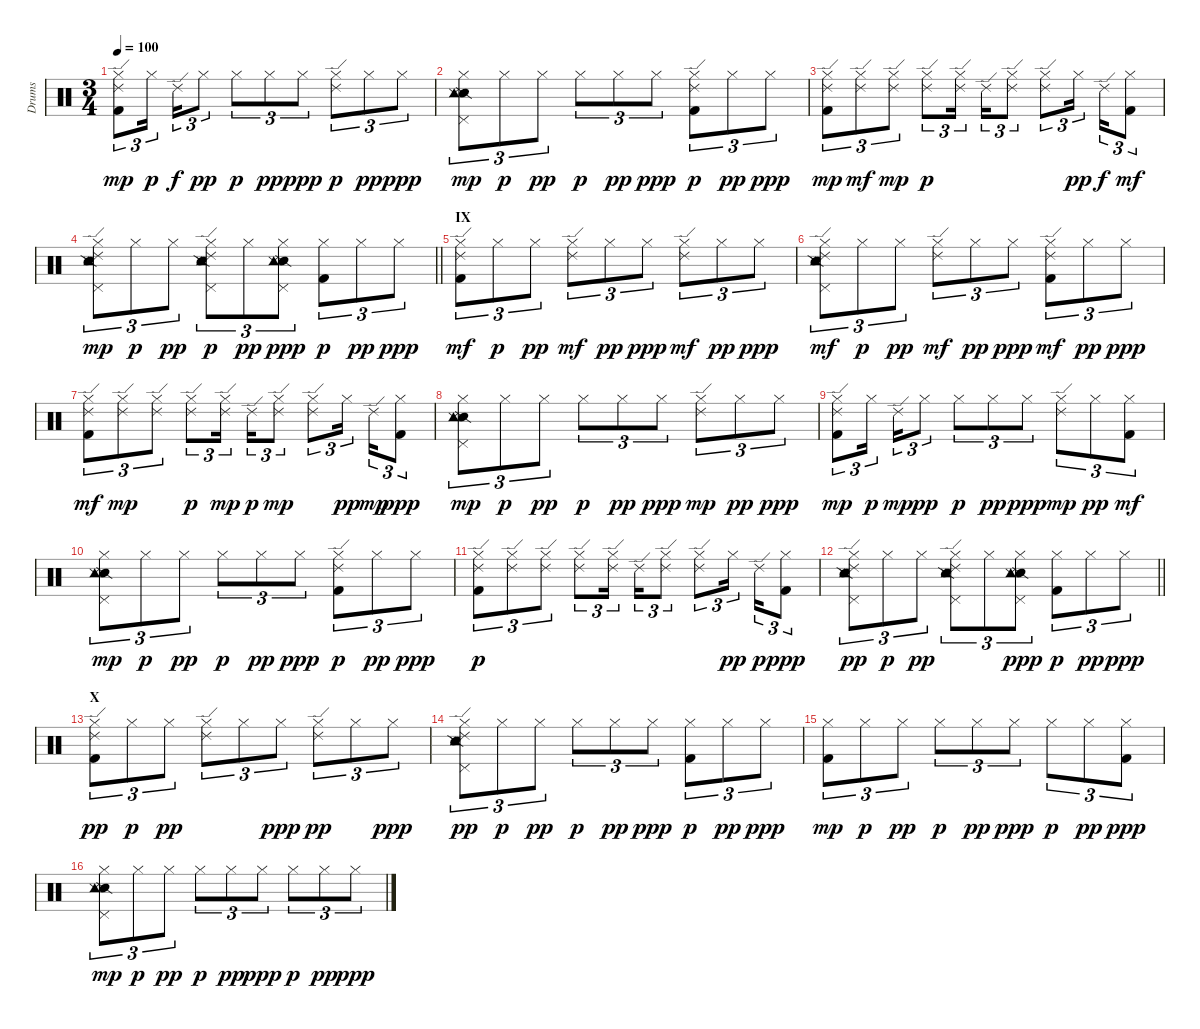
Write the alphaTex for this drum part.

\track ("Drums" "Drums") {instrument percussion}
\staff {score}
\articulation defaults
\ts (3 4)
\tempo 100
\clef neutral
\ks c
("Hi-Hat (closed)" "Ride (edge) 2" "Kick (hit) 2").8{tu (3 2) dy mp} "Hi-Hat (closed)".16{tu (3 2) dy p beam splitsecondary} "Ride (edge) 2".16{tu (3 2) dy f} "Hi-Hat (closed)".8{tu (3 2) dy pp} "Hi-Hat (closed)".8{tu (3 2) dy p} "Hi-Hat (closed)".8{tu (3 2) dy pp} "Hi-Hat (closed)".8{tu (3 2) dy ppp} ("Hi-Hat (closed)" "Ride (edge) 2").8{tu (3 2) dy p} "Hi-Hat (closed)".8{tu (3 2) dy pp} "Hi-Hat (closed)".8{tu (3 2) dy ppp} |
("Hi-Hat (closed)" "Pedal Hi-Hat (hit)" "Snare (side stick) 2" "Snare (side stick) 3" "Tambourine (hit)").8{tu (3 2) dy mp} "Hi-Hat (closed)".8{tu (3 2) dy p} "Hi-Hat (closed)".8{tu (3 2) dy pp} "Hi-Hat (closed)".8{tu (3 2) dy p} "Hi-Hat (closed)".8{tu (3 2) dy pp} "Hi-Hat (closed)".8{tu (3 2) dy ppp} ("Hi-Hat (closed)" "Ride (edge) 2" "Kick (hit) 2").8{tu (3 2) dy p} "Hi-Hat (closed)".8{tu (3 2) dy pp} "Hi-Hat (closed)".8{tu (3 2) dy ppp} |
("Hi-Hat (closed)" "Ride (edge) 2" "Kick (hit) 2").8{tu (3 2) dy mp} ("Hi-Hat (closed)" "Ride (edge) 2").8{tu (3 2) dy mf} ("Hi-Hat (closed)" "Ride (edge) 2").8{tu (3 2) dy mp} ("Hi-Hat (closed)" "Ride (edge) 2").8{tu (3 2) dy p} ("Hi-Hat (closed)" "Ride (edge) 2").16{tu (3 2) beam splitsecondary} "Ride (edge) 2".16{tu (3 2)} ("Hi-Hat (closed)" "Ride (edge) 2").8{tu (3 2)} ("Hi-Hat (closed)" "Ride (edge) 2").8{tu (3 2)} "Hi-Hat (closed)".16{tu (3 2) dy pp beam splitsecondary} "Ride (edge) 2".16{tu (3 2) dy f} ("Hi-Hat (closed)" "Kick (hit) 2").8{tu (3 2) dy mf} |
\barLineRight lightlight
("Hi-Hat (closed)" "Ride (edge) 2" "Pedal Hi-Hat (hit)" "Snare (side stick) 2" "Snare (side stick) 3" "Tambourine (hit)").8{tu (3 2) dy mp} "Hi-Hat (closed)".8{tu (3 2) dy p} "Hi-Hat (closed)".8{tu (3 2) dy pp} ("Hi-Hat (closed)" "Ride (edge) 2" "Pedal Hi-Hat (hit)" "Snare (side stick) 2" "Snare (side stick) 3" "Tambourine (hit)").8{tu (3 2) dy p} "Hi-Hat (closed)".8{tu (3 2) dy pp} ("Hi-Hat (closed)" "Pedal Hi-Hat (hit)" "Snare (side stick) 2" "Snare (side stick) 3" "Tambourine (hit)").8{tu (3 2) dy ppp} ("Hi-Hat (closed)" "Kick (hit) 2").8{tu (3 2) dy p} "Hi-Hat (closed)".8{tu (3 2) dy pp} "Hi-Hat (closed)".8{tu (3 2) dy ppp} |
\section ("" "IX")
("Hi-Hat (closed)" "Ride (edge) 2" "Kick (hit) 2").8{tu (3 2) dy mf} "Hi-Hat (closed)".8{tu (3 2) dy p} "Hi-Hat (closed)".8{tu (3 2) dy pp} ("Hi-Hat (closed)" "Ride (edge) 2").8{tu (3 2) dy mf} "Hi-Hat (closed)".8{tu (3 2) dy pp} "Hi-Hat (closed)".8{tu (3 2) dy ppp} ("Hi-Hat (closed)" "Ride (edge) 2").8{tu (3 2) dy mf} "Hi-Hat (closed)".8{tu (3 2) dy pp} "Hi-Hat (closed)".8{tu (3 2) dy ppp} |
("Hi-Hat (closed)" "Ride (edge) 2" "Pedal Hi-Hat (hit)" "Snare (side stick) 2" "Snare (side stick) 3" "Tambourine (hit)").8{tu (3 2) dy mf} "Hi-Hat (closed)".8{tu (3 2) dy p} "Hi-Hat (closed)".8{tu (3 2) dy pp} ("Hi-Hat (closed)" "Ride (edge) 2").8{tu (3 2) dy mf} "Hi-Hat (closed)".8{tu (3 2) dy pp} "Hi-Hat (closed)".8{tu (3 2) dy ppp} ("Hi-Hat (closed)" "Ride (edge) 2" "Kick (hit) 2").8{tu (3 2) dy mf} "Hi-Hat (closed)".8{tu (3 2) dy pp} "Hi-Hat (closed)".8{tu (3 2) dy ppp} |
("Hi-Hat (closed)" "Ride (edge) 2" "Kick (hit) 2").8{tu (3 2) dy mf} ("Hi-Hat (closed)" "Ride (edge) 2").8{tu (3 2) dy mp} ("Hi-Hat (closed)" "Ride (edge) 2").8{tu (3 2)} ("Hi-Hat (closed)" "Ride (edge) 2").8{tu (3 2) dy p} ("Hi-Hat (closed)" "Ride (edge) 2").16{tu (3 2) dy mp beam splitsecondary} "Ride (edge) 2".16{tu (3 2) dy p} ("Hi-Hat (closed)" "Ride (edge) 2").8{tu (3 2) dy mp} ("Hi-Hat (closed)" "Ride (edge) 2").8{tu (3 2)} "Hi-Hat (closed)".16{tu (3 2) dy pp beam splitsecondary} "Ride (edge) 2".16{tu (3 2) dy mp} ("Hi-Hat (closed)" "Kick (hit) 2").8{tu (3 2) dy ppp} |
("Hi-Hat (closed)" "Pedal Hi-Hat (hit)" "Snare (side stick) 2" "Snare (side stick) 3" "Tambourine (hit)").8{tu (3 2) dy mp} "Hi-Hat (closed)".8{tu (3 2) dy p} "Hi-Hat (closed)".8{tu (3 2) dy pp} "Hi-Hat (closed)".8{tu (3 2) dy p} "Hi-Hat (closed)".8{tu (3 2) dy pp} "Hi-Hat (closed)".8{tu (3 2) dy ppp} ("Hi-Hat (closed)" "Ride (edge) 2").8{tu (3 2) dy mp} "Hi-Hat (closed)".8{tu (3 2) dy pp} "Hi-Hat (closed)".8{tu (3 2) dy ppp} |
("Hi-Hat (closed)" "Ride (edge) 2" "Kick (hit) 2").8{tu (3 2) dy mp} "Hi-Hat (closed)".16{tu (3 2) dy p beam splitsecondary} "Ride (edge) 2".16{tu (3 2) dy mp} "Hi-Hat (closed)".8{tu (3 2) dy pp} "Hi-Hat (closed)".8{tu (3 2) dy p} "Hi-Hat (closed)".8{tu (3 2) dy pp} "Hi-Hat (closed)".8{tu (3 2) dy ppp} ("Hi-Hat (closed)" "Ride (edge) 2").8{tu (3 2) dy mp} "Hi-Hat (closed)".8{tu (3 2) dy pp} ("Hi-Hat (closed)" "Kick (hit) 2").8{tu (3 2) dy mf} |
("Hi-Hat (closed)" "Pedal Hi-Hat (hit)" "Snare (side stick) 2" "Snare (side stick) 3" "Tambourine (hit)").8{tu (3 2) dy mp} "Hi-Hat (closed)".8{tu (3 2) dy p} "Hi-Hat (closed)".8{tu (3 2) dy pp} "Hi-Hat (closed)".8{tu (3 2) dy p} "Hi-Hat (closed)".8{tu (3 2) dy pp} "Hi-Hat (closed)".8{tu (3 2) dy ppp} ("Hi-Hat (closed)" "Ride (edge) 2" "Kick (hit) 2").8{tu (3 2) dy p} "Hi-Hat (closed)".8{tu (3 2) dy pp} "Hi-Hat (closed)".8{tu (3 2) dy ppp} |
("Hi-Hat (closed)" "Ride (edge) 2" "Kick (hit) 2").8{tu (3 2) dy p} ("Hi-Hat (closed)" "Ride (edge) 2").8{tu (3 2)} ("Hi-Hat (closed)" "Ride (edge) 2").8{tu (3 2)} ("Hi-Hat (closed)" "Ride (edge) 2").8{tu (3 2)} ("Hi-Hat (closed)" "Ride (edge) 2").16{tu (3 2) beam splitsecondary} "Ride (edge) 2".16{tu (3 2)} ("Hi-Hat (closed)" "Ride (edge) 2").8{tu (3 2)} ("Hi-Hat (closed)" "Ride (edge) 2").8{tu (3 2)} "Hi-Hat (closed)".16{tu (3 2) dy pp beam splitsecondary} "Ride (edge) 2".16{tu (3 2) dy p} ("Hi-Hat (closed)" "Kick (hit) 2").8{tu (3 2) dy ppp} |
\barLineRight lightlight
("Hi-Hat (closed)" "Ride (edge) 2" "Pedal Hi-Hat (hit)" "Snare (side stick) 2" "Snare (side stick) 3" "Tambourine (hit)").8{tu (3 2) dy pp} "Hi-Hat (closed)".8{tu (3 2) dy p} "Hi-Hat (closed)".8{tu (3 2) dy pp} ("Hi-Hat (closed)" "Ride (edge) 2" "Pedal Hi-Hat (hit)" "Snare (side stick) 2" "Snare (side stick) 3" "Tambourine (hit)").8{tu (3 2)} "Hi-Hat (closed)".8{tu (3 2)} ("Hi-Hat (closed)" "Pedal Hi-Hat (hit)" "Snare (side stick) 2" "Snare (side stick) 3" "Tambourine (hit)").8{tu (3 2) dy ppp} ("Hi-Hat (closed)" "Kick (hit) 2").8{tu (3 2) dy p} "Hi-Hat (closed)".8{tu (3 2) dy pp} "Hi-Hat (closed)".8{tu (3 2) dy ppp} |
\section ("" "X")
("Hi-Hat (closed)" "Ride (edge) 2" "Kick (hit) 2").8{tu (3 2) dy pp} "Hi-Hat (closed)".8{tu (3 2) dy p} "Hi-Hat (closed)".8{tu (3 2) dy pp} ("Hi-Hat (closed)" "Ride (edge) 2").8{tu (3 2)} "Hi-Hat (closed)".8{tu (3 2)} "Hi-Hat (closed)".8{tu (3 2) dy ppp} ("Hi-Hat (closed)" "Ride (edge) 2").8{tu (3 2) dy pp} "Hi-Hat (closed)".8{tu (3 2)} "Hi-Hat (closed)".8{tu (3 2) dy ppp} |
("Hi-Hat (closed)" "Ride (edge) 2" "Pedal Hi-Hat (hit)" "Snare (side stick) 2" "Snare (side stick) 3" "Tambourine (hit)").8{tu (3 2) dy pp} "Hi-Hat (closed)".8{tu (3 2) dy p} "Hi-Hat (closed)".8{tu (3 2) dy pp} "Hi-Hat (closed)".8{tu (3 2) dy p} "Hi-Hat (closed)".8{tu (3 2) dy pp} "Hi-Hat (closed)".8{tu (3 2) dy ppp} ("Hi-Hat (closed)" "Kick (hit) 2").8{tu (3 2) dy p} "Hi-Hat (closed)".8{tu (3 2) dy pp} "Hi-Hat (closed)".8{tu (3 2) dy ppp} |
("Hi-Hat (closed)" "Kick (hit) 2").8{tu (3 2) dy mp} "Hi-Hat (closed)".8{tu (3 2) dy p} "Hi-Hat (closed)".8{tu (3 2) dy pp} "Hi-Hat (closed)".8{tu (3 2) dy p} "Hi-Hat (closed)".8{tu (3 2) dy pp} "Hi-Hat (closed)".8{tu (3 2) dy ppp} "Hi-Hat (closed)".8{tu (3 2) dy p} "Hi-Hat (closed)".8{tu (3 2) dy pp} ("Hi-Hat (closed)" "Kick (hit) 2").8{tu (3 2) dy ppp} |
("Hi-Hat (closed)" "Pedal Hi-Hat (hit)" "Snare (side stick) 2" "Snare (side stick) 3" "Tambourine (hit)").8{tu (3 2) dy mp} "Hi-Hat (closed)".8{tu (3 2) dy p} "Hi-Hat (closed)".8{tu (3 2) dy pp} "Hi-Hat (closed)".8{tu (3 2) dy p} "Hi-Hat (closed)".8{tu (3 2) dy pp} "Hi-Hat (closed)".8{tu (3 2) dy ppp} "Hi-Hat (closed)".8{tu (3 2) dy p} "Hi-Hat (closed)".8{tu (3 2) dy pp} "Hi-Hat (closed)".8{tu (3 2) dy ppp}
